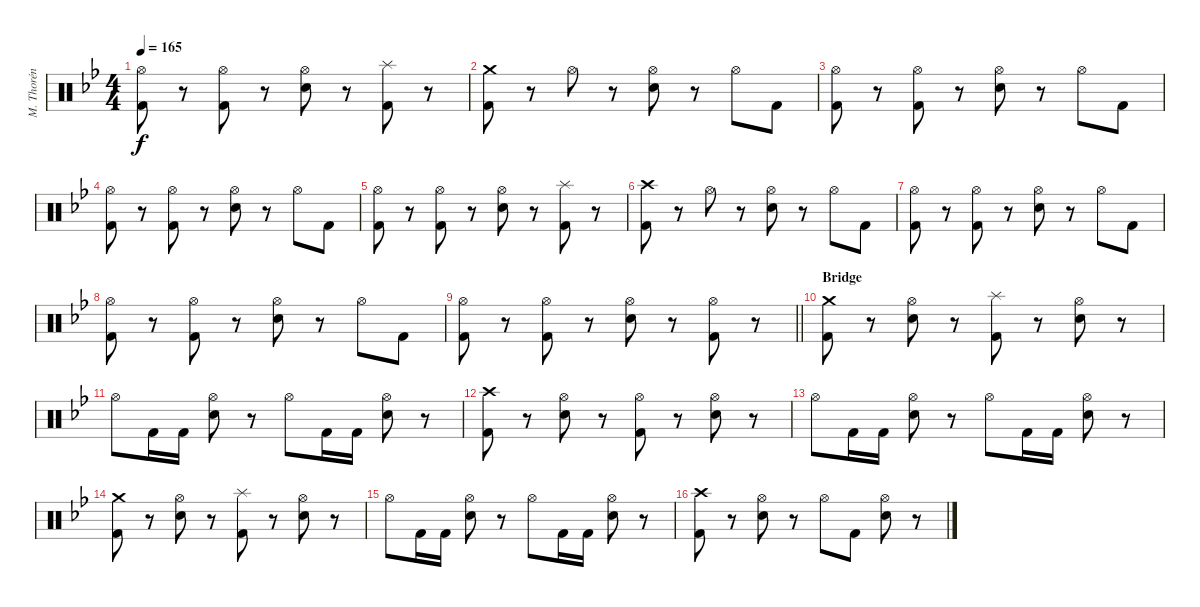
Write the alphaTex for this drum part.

\track ("M. Thorén (Drums)" "M. Thorén ") {instrument percussion}
\staff {score}
\articulation defaults
\ts (4 4)
\tempo 165
\clef neutral
\ks gminor
("Hi-Hat (open)" "Kick (hit) 2").8{dy f} r.8 ("Hi-Hat (open)" "Kick (hit) 2").8 r.8 ("Hi-Hat (open)" "Electric Snare (hit)").8 r.8 ("Splash (hit)" "Kick (hit) 2").8 r.8 |
("Crash medium (hit)" "Kick (hit) 2").8 r.8 "Hi-Hat (open)".8 r.8 ("Hi-Hat (open)" "Electric Snare (hit)").8 r.8 "Hi-Hat (open)".8 "Kick (hit) 2".8 |
("Hi-Hat (open)" "Kick (hit) 2").8 r.8 ("Hi-Hat (open)" "Kick (hit) 2").8 r.8 ("Hi-Hat (open)" "Electric Snare (hit)").8 r.8 "Hi-Hat (open)".8 "Kick (hit) 2".8 |
("Hi-Hat (open)" "Kick (hit) 2").8 r.8 ("Hi-Hat (open)" "Kick (hit) 2").8 r.8 ("Hi-Hat (open)" "Electric Snare (hit)").8 r.8 "Hi-Hat (open)".8 "Kick (hit) 2".8 |
("Hi-Hat (open)" "Kick (hit) 2").8 r.8 ("Hi-Hat (open)" "Kick (hit) 2").8 r.8 ("Hi-Hat (open)" "Electric Snare (hit)").8 r.8 ("Splash (hit)" "Kick (hit) 2").8 r.8 |
("Crash high (hit)" "Kick (hit) 2").8 r.8 "Hi-Hat (open)".8 r.8 ("Hi-Hat (open)" "Electric Snare (hit)").8 r.8 "Hi-Hat (open)".8 "Kick (hit) 2".8 |
("Hi-Hat (open)" "Kick (hit) 2").8 r.8 ("Hi-Hat (open)" "Kick (hit) 2").8 r.8 ("Hi-Hat (open)" "Electric Snare (hit)").8 r.8 "Hi-Hat (open)".8 "Kick (hit) 2".8 |
("Hi-Hat (open)" "Kick (hit) 2").8 r.8 ("Hi-Hat (open)" "Kick (hit) 2").8 r.8 ("Hi-Hat (open)" "Electric Snare (hit)").8 r.8 "Hi-Hat (open)".8 "Kick (hit) 2".8 |
\barLineRight lightlight
("Hi-Hat (open)" "Kick (hit) 2").8 r.8 ("Hi-Hat (open)" "Kick (hit) 2").8 r.8 ("Hi-Hat (open)" "Electric Snare (hit)").8 r.8 ("Hi-Hat (open)" "Kick (hit) 2").8 r.8 |
\section ("" "Bridge")
("Crash medium (hit)" "Kick (hit) 2").8 r.8 ("Hi-Hat (open)" "Electric Snare (hit)").8 r.8 ("Splash (hit)" "Kick (hit) 2").8 r.8 ("Hi-Hat (open)" "Electric Snare (hit)").8 r.8 |
"Hi-Hat (open)".8 "Kick (hit) 2".16 "Kick (hit) 2".16 ("Hi-Hat (open)" "Electric Snare (hit)").8 r.8 "Hi-Hat (open)".8 "Kick (hit) 2".16 "Kick (hit) 2".16 ("Hi-Hat (open)" "Electric Snare (hit)").8 r.8 |
("Crash high (hit)" "Kick (hit) 2").8 r.8 ("Hi-Hat (open)" "Electric Snare (hit)").8 r.8 ("Hi-Hat (open)" "Kick (hit) 2").8 r.8 ("Hi-Hat (open)" "Electric Snare (hit)").8 r.8 |
"Hi-Hat (open)".8 "Kick (hit) 2".16 "Kick (hit) 2".16 ("Hi-Hat (open)" "Electric Snare (hit)").8 r.8 "Hi-Hat (open)".8 "Kick (hit) 2".16 "Kick (hit) 2".16 ("Hi-Hat (open)" "Electric Snare (hit)").8 r.8 |
("Crash medium (hit)" "Kick (hit) 2").8 r.8 ("Hi-Hat (open)" "Electric Snare (hit)").8 r.8 ("Splash (hit)" "Kick (hit) 2").8 r.8 ("Hi-Hat (open)" "Electric Snare (hit)").8 r.8 |
"Hi-Hat (open)".8 "Kick (hit) 2".16 "Kick (hit) 2".16 ("Hi-Hat (open)" "Electric Snare (hit)").8 r.8 "Hi-Hat (open)".8 "Kick (hit) 2".16 "Kick (hit) 2".16 ("Hi-Hat (open)" "Electric Snare (hit)").8 r.8 |
("Crash high (hit)" "Kick (hit) 2").8 r.8 ("Hi-Hat (open)" "Electric Snare (hit)").8 r.8 "Hi-Hat (open)".8 "Kick (hit) 2".8 ("Hi-Hat (open)" "Electric Snare (hit)").8 r.8
